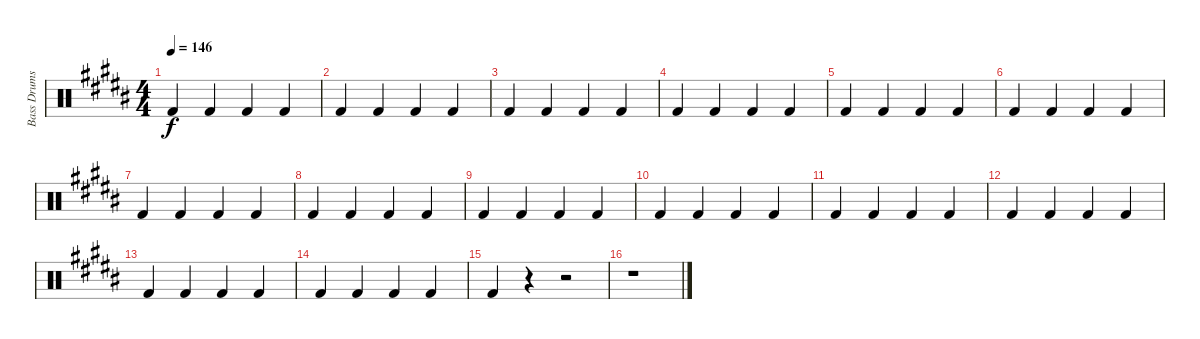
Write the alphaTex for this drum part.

\track ("Bass Drums" "Bass Drums") {instrument percussion}
\staff {score}
\articulation defaults
\ts (4 4)
\tempo 146
\clef neutral
\ks b "Kick (hit) 2".4{dy f} "Kick (hit) 2".4 "Kick (hit) 2".4 "Kick (hit) 2".4
|
"Kick (hit) 2".4 "Kick (hit) 2".4 "Kick (hit) 2".4 "Kick (hit) 2".4 |
"Kick (hit) 2".4 "Kick (hit) 2".4 "Kick (hit) 2".4 "Kick (hit) 2".4 |
"Kick (hit) 2".4 "Kick (hit) 2".4 "Kick (hit) 2".4 "Kick (hit) 2".4 |
"Kick (hit) 2".4 "Kick (hit) 2".4 "Kick (hit) 2".4 "Kick (hit) 2".4 |
"Kick (hit) 2".4 "Kick (hit) 2".4 "Kick (hit) 2".4 "Kick (hit) 2".4 |
"Kick (hit) 2".4 "Kick (hit) 2".4 "Kick (hit) 2".4 "Kick (hit) 2".4 |
"Kick (hit) 2".4 "Kick (hit) 2".4 "Kick (hit) 2".4 "Kick (hit) 2".4 |
"Kick (hit) 2".4 "Kick (hit) 2".4 "Kick (hit) 2".4 "Kick (hit) 2".4 |
"Kick (hit) 2".4 "Kick (hit) 2".4 "Kick (hit) 2".4 "Kick (hit) 2".4 |
"Kick (hit) 2".4 "Kick (hit) 2".4 "Kick (hit) 2".4 "Kick (hit) 2".4 |
"Kick (hit) 2".4 "Kick (hit) 2".4 "Kick (hit) 2".4 "Kick (hit) 2".4 |
"Kick (hit) 2".4 "Kick (hit) 2".4 "Kick (hit) 2".4 "Kick (hit) 2".4 |
"Kick (hit) 2".4 "Kick (hit) 2".4 "Kick (hit) 2".4 "Kick (hit) 2".4 |
"Kick (hit) 2".4 r.4 r.2 |
r.1
